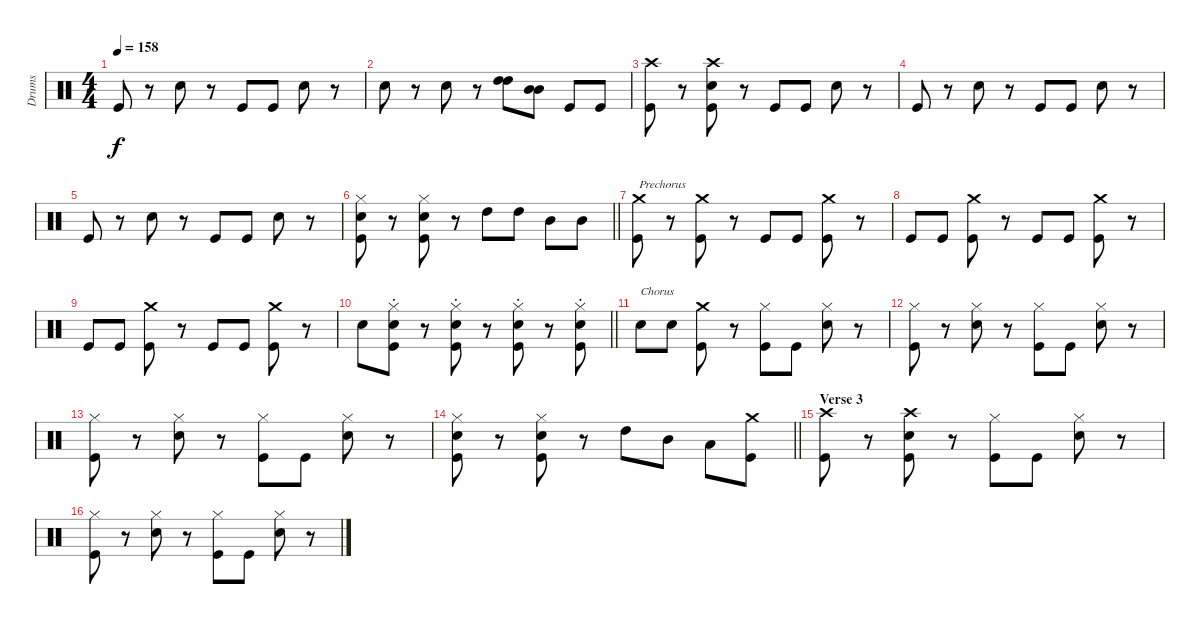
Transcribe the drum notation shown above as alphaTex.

\track ("Drums" "Drums") {instrument percussion}
\staff {score}
\articulation defaults
\ts (4 4)
\tempo 158
\clef neutral
\ks c "Kick (hit)".8{dy f}
r.8 "Snare (hit) 2".8 r.8 "Kick (hit)".8 "Kick (hit)".8 "Snare (hit) 2".8 r.8 |
"Snare (hit) 2".8 r.8 "Snare (hit) 2".8 r.8 ("High Tom (hit)" "High Tom (hit)").8 ("Mid Tom (hit)" "Mid Tom (hit)").8 "Kick (hit)".8 "Kick (hit)".8 |
("Crash high (hit)" "Kick (hit)").8 r.8 ("Crash high (hit)" "Snare (hit) 2" "Kick (hit)").8 r.8 "Kick (hit)".8 "Kick (hit)".8 "Snare (hit) 2".8 r.8 |
"Kick (hit)".8 r.8 "Snare (hit) 2".8 r.8 "Kick (hit)".8 "Kick (hit)".8 "Snare (hit) 2".8 r.8 |
"Kick (hit)".8 r.8 "Snare (hit) 2".8 r.8 "Kick (hit)".8 "Kick (hit)".8 "Snare (hit) 2".8 r.8 |
\barLineRight lightlight
("Hi-Hat (closed)" "Snare (hit) 2" "Kick (hit)").8 r.8 ("Hi-Hat (closed)" "Snare (hit) 2" "Kick (hit)").8 r.8 "High Tom (hit)".8 "High Tom (hit)".8 "Mid Tom (hit)".8 "Mid Tom (hit)".8 |
("Crash medium (hit)" "Kick (hit)").8{txt "Prechorus"} r.8 ("Crash medium (hit)" "Kick (hit)").8 r.8 "Kick (hit)".8 "Kick (hit)".8 ("Crash medium (hit)" "Kick (hit)").8 r.8 |
"Kick (hit)".8 "Kick (hit)".8 ("Crash medium (hit)" "Kick (hit)").8 r.8 "Kick (hit)".8 "Kick (hit)".8 ("Crash medium (hit)" "Kick (hit)").8 r.8 |
"Kick (hit)".8 "Kick (hit)".8 ("Crash medium (hit)" "Kick (hit)").8 r.8 "Kick (hit)".8 "Kick (hit)".8 ("Crash medium (hit)" "Kick (hit)").8 r.8 |
\barLineRight lightlight "Snare (hit) 2".8
("Hi-Hat (closed)"{st} "Snare (hit) 2"{st} "Kick (hit)"{st}).8 r.8 ("Hi-Hat (closed)"{st} "Snare (hit) 2"{st} "Kick (hit)"{st}).8 r.8 ("Hi-Hat (closed)"{st} "Snare (hit) 2"{st} "Kick (hit)"{st}).8 r.8 ("Hi-Hat (closed)"{st} "Snare (hit) 2"{st} "Kick (hit)"{st}).8 |
"Snare (hit) 2".8{txt "Chorus"} "Snare (hit) 2".8 ("Crash medium (hit)" "Kick (hit)").8 r.8 ("Hi-Hat (closed)" "Kick (hit)").8 "Kick (hit)".8 ("Hi-Hat (closed)" "Snare (hit) 2").8 r.8 |
("Hi-Hat (closed)" "Kick (hit)").8 r.8 ("Hi-Hat (closed)" "Snare (hit) 2").8 r.8 ("Hi-Hat (closed)" "Kick (hit)").8 "Kick (hit)".8 ("Hi-Hat (closed)" "Snare (hit) 2").8 r.8 |
("Hi-Hat (closed)" "Kick (hit)").8 r.8 ("Hi-Hat (closed)" "Snare (hit) 2").8 r.8 ("Hi-Hat (closed)" "Kick (hit)").8 "Kick (hit)".8 ("Hi-Hat (closed)" "Snare (hit) 2").8 r.8 |
\barLineRight lightlight
("Hi-Hat (closed)" "Snare (hit) 2" "Kick (hit)").8 r.8 ("Hi-Hat (closed)" "Snare (hit) 2" "Kick (hit)").8 r.8 "High Tom (hit)".8 "Mid Tom (hit)".8 "Low Tom (hit)".8 ("Crash medium (hit)" "Kick (hit)").8 |
\section ("" "Verse 3")
("Crash high (hit)" "Kick (hit)").8 r.8 ("Crash high (hit)" "Snare (hit) 2" "Kick (hit)").8 r.8 ("Hi-Hat (closed)" "Kick (hit)").8 "Kick (hit)".8 ("Hi-Hat (closed)" "Snare (hit) 2").8 r.8 |
("Hi-Hat (closed)" "Kick (hit)").8 r.8 ("Hi-Hat (closed)" "Snare (hit) 2").8 r.8 ("Hi-Hat (closed)" "Kick (hit)").8 "Kick (hit)".8 ("Hi-Hat (closed)" "Snare (hit) 2").8 r.8
